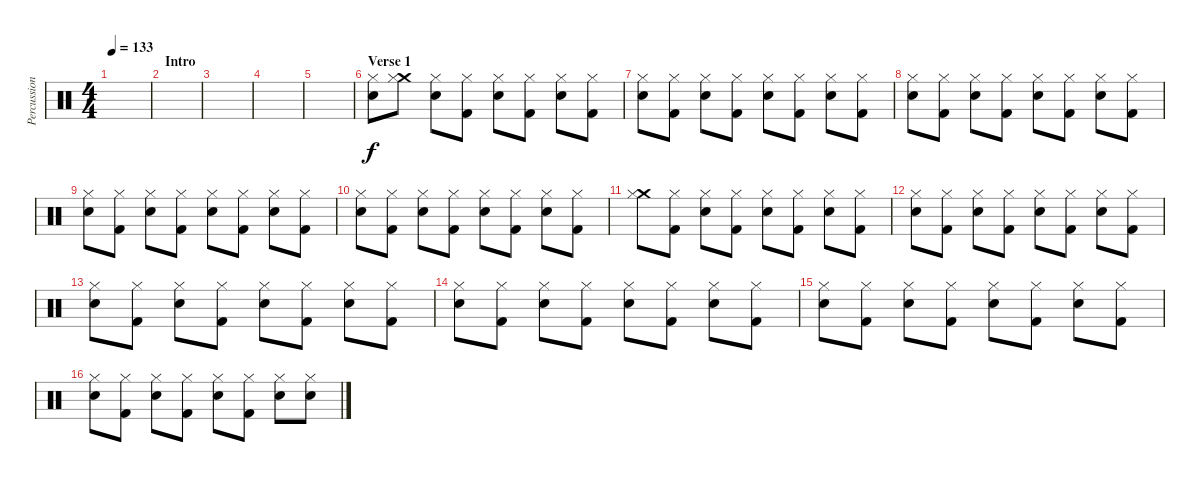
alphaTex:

\track ("Percussion" "Percussion") {instrument percussion}
\staff {score}
\articulation defaults
\ts (4 4)
\tempo 133
\clef neutral
\ks c
|
\section ("" "Intro")
|
|
|
|
\section ("" "Verse 1")
("Snare (hit) 2" "Hi-Hat (closed)").8 ("Crash medium (hit)" "Hi-Hat (closed)").8 ("Snare (hit) 2" "Hi-Hat (closed)").8 ("Kick (hit) 2" "Hi-Hat (closed)").8 ("Snare (hit) 2" "Hi-Hat (closed)").8 ("Kick (hit) 2" "Hi-Hat (closed)").8 ("Snare (hit) 2" "Hi-Hat (closed)").8 ("Kick (hit) 2" "Hi-Hat (closed)").8 |
("Snare (hit) 2" "Hi-Hat (closed)").8 ("Kick (hit) 2" "Hi-Hat (closed)").8 ("Snare (hit) 2" "Hi-Hat (closed)").8 ("Kick (hit) 2" "Hi-Hat (closed)").8 ("Snare (hit) 2" "Hi-Hat (closed)").8 ("Kick (hit) 2" "Hi-Hat (closed)").8 ("Snare (hit) 2" "Hi-Hat (closed)").8 ("Kick (hit) 2" "Hi-Hat (closed)").8 |
("Snare (hit) 2" "Hi-Hat (closed)").8 ("Kick (hit) 2" "Hi-Hat (closed)").8 ("Snare (hit) 2" "Hi-Hat (closed)").8 ("Kick (hit) 2" "Hi-Hat (closed)").8 ("Snare (hit) 2" "Hi-Hat (closed)").8 ("Kick (hit) 2" "Hi-Hat (closed)").8 ("Snare (hit) 2" "Hi-Hat (closed)").8 ("Kick (hit) 2" "Hi-Hat (closed)").8 |
("Snare (hit) 2" "Hi-Hat (closed)").8 ("Kick (hit) 2" "Hi-Hat (closed)").8 ("Snare (hit) 2" "Hi-Hat (closed)").8 ("Kick (hit) 2" "Hi-Hat (closed)").8 ("Snare (hit) 2" "Hi-Hat (closed)").8 ("Kick (hit) 2" "Hi-Hat (closed)").8 ("Snare (hit) 2" "Hi-Hat (closed)").8 ("Kick (hit) 2" "Hi-Hat (closed)").8 |
("Snare (hit) 2" "Hi-Hat (closed)").8 ("Kick (hit) 2" "Hi-Hat (closed)").8 ("Snare (hit) 2" "Hi-Hat (closed)").8 ("Kick (hit) 2" "Hi-Hat (closed)").8 ("Snare (hit) 2" "Hi-Hat (closed)").8 ("Kick (hit) 2" "Hi-Hat (closed)").8 ("Snare (hit) 2" "Hi-Hat (closed)").8 ("Kick (hit) 2" "Hi-Hat (closed)").8 |
("Crash medium (hit)" "Hi-Hat (closed)").8 ("Kick (hit) 2" "Hi-Hat (closed)").8 ("Snare (hit) 2" "Hi-Hat (closed)").8 ("Kick (hit) 2" "Hi-Hat (closed)").8 ("Snare (hit) 2" "Hi-Hat (closed)").8 ("Kick (hit) 2" "Hi-Hat (closed)").8 ("Snare (hit) 2" "Hi-Hat (closed)").8 ("Kick (hit) 2" "Hi-Hat (closed)").8 |
("Snare (hit) 2" "Hi-Hat (closed)").8 ("Kick (hit) 2" "Hi-Hat (closed)").8 ("Snare (hit) 2" "Hi-Hat (closed)").8 ("Kick (hit) 2" "Hi-Hat (closed)").8 ("Snare (hit) 2" "Hi-Hat (closed)").8 ("Kick (hit) 2" "Hi-Hat (closed)").8 ("Snare (hit) 2" "Hi-Hat (closed)").8 ("Kick (hit) 2" "Hi-Hat (closed)").8 |
("Snare (hit) 2" "Hi-Hat (closed)").8 ("Kick (hit) 2" "Hi-Hat (closed)").8 ("Snare (hit) 2" "Hi-Hat (closed)").8 ("Kick (hit) 2" "Hi-Hat (closed)").8 ("Snare (hit) 2" "Hi-Hat (closed)").8 ("Kick (hit) 2" "Hi-Hat (closed)").8 ("Snare (hit) 2" "Hi-Hat (closed)").8 ("Kick (hit) 2" "Hi-Hat (closed)").8 |
("Snare (hit) 2" "Hi-Hat (closed)").8 ("Kick (hit) 2" "Hi-Hat (closed)").8 ("Snare (hit) 2" "Hi-Hat (closed)").8 ("Kick (hit) 2" "Hi-Hat (closed)").8 ("Snare (hit) 2" "Hi-Hat (closed)").8 ("Kick (hit) 2" "Hi-Hat (closed)").8 ("Snare (hit) 2" "Hi-Hat (closed)").8 ("Kick (hit) 2" "Hi-Hat (closed)").8 |
("Snare (hit) 2" "Hi-Hat (closed)").8 ("Kick (hit) 2" "Hi-Hat (closed)").8 ("Snare (hit) 2" "Hi-Hat (closed)").8 ("Kick (hit) 2" "Hi-Hat (closed)").8 ("Snare (hit) 2" "Hi-Hat (closed)").8 ("Kick (hit) 2" "Hi-Hat (closed)").8 ("Snare (hit) 2" "Hi-Hat (closed)").8 ("Kick (hit) 2" "Hi-Hat (closed)").8 |
("Snare (hit) 2" "Hi-Hat (closed)").8 ("Kick (hit) 2" "Hi-Hat (closed)").8 ("Snare (hit) 2" "Hi-Hat (closed)").8 ("Kick (hit) 2" "Hi-Hat (closed)").8 ("Snare (hit) 2" "Hi-Hat (closed)").8 ("Kick (hit) 2" "Hi-Hat (closed)").8 ("Snare (hit) 2" "Hi-Hat (closed)").8 ("Snare (hit) 2" "Hi-Hat (closed)").8
